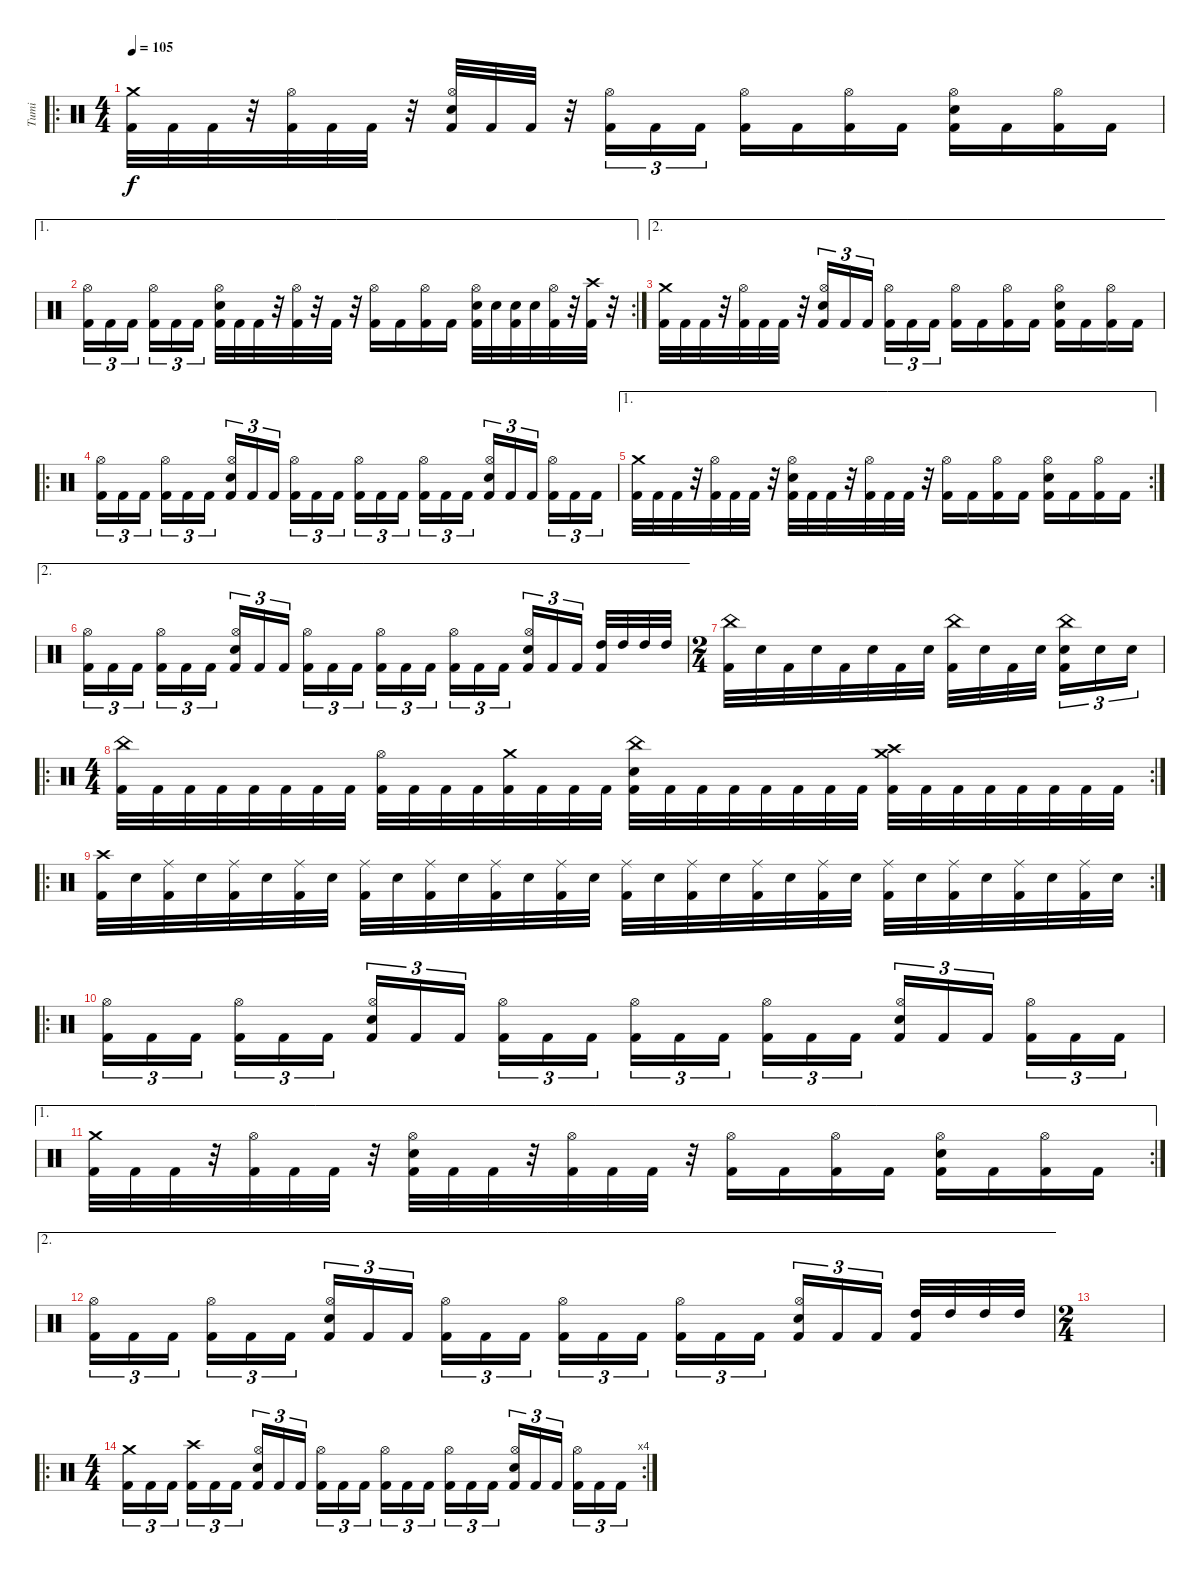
\track ("Tumi" "Tumi") {instrument percussion}
\staff {score}
\articulation defaults
\ro
\ts (4 4)
\tempo 105
\clef neutral
\ks c
("Crash medium (hit)" "Kick (hit) 2").32{dy f} "Kick (hit) 2".32 "Kick (hit) 2".32 r.32 ("Hi-Hat (open)" "Kick (hit) 2").32 "Kick (hit) 2".32 "Kick (hit) 2".32 r.32 ("Electric Snare (hit)" "Hi-Hat (open)" "Kick (hit) 2").32 "Kick (hit) 2".32 "Kick (hit) 2".32 r.32 ("Hi-Hat (open)" "Kick (hit) 2").16{tu (3 2)} "Kick (hit) 2".16{tu (3 2)} "Kick (hit) 2".16{tu (3 2)} ("Hi-Hat (open)" "Kick (hit) 2").16 "Kick (hit) 2".16 ("Hi-Hat (open)" "Kick (hit) 2").16 "Kick (hit) 2".16 ("Electric Snare (hit)" "Hi-Hat (open)" "Kick (hit) 2").16 "Kick (hit) 2".16 ("Hi-Hat (open)" "Kick (hit) 2").16 "Kick (hit) 2".16 |
\ae 1
\rc 2
("Hi-Hat (open)" "Kick (hit) 2").16{tu (3 2)} "Kick (hit) 2".16{tu (3 2)} "Kick (hit) 2".16{tu (3 2) beam splitsecondary} ("Hi-Hat (open)" "Kick (hit) 2").16{tu (3 2)} "Kick (hit) 2".16{tu (3 2)} "Kick (hit) 2".16{tu (3 2)} ("Electric Snare (hit)" "Hi-Hat (open)" "Kick (hit) 2").32 "Kick (hit) 2".32 "Kick (hit) 2".32 r.32 ("Hi-Hat (open)" "Kick (hit) 2").32 r.32 "Kick (hit) 2".32 r.32 ("Hi-Hat (open)" "Kick (hit) 2").16 "Kick (hit) 2".16 ("Hi-Hat (open)" "Kick (hit) 2").16 "Kick (hit) 2".16 ("Hi-Hat (open)" "Electric Snare (hit)" "Kick (hit) 2").32 "Electric Snare (hit)".32 ("Electric Snare (hit)" "Kick (hit) 2").32 "Electric Snare (hit)".32 ("Hi-Hat (open)" "Kick (hit) 2").32 r.32 ("Crash high (hit)" "Kick (hit) 2").32 r.32 |
\ae 2
("Crash medium (hit)" "Kick (hit) 2").32 "Kick (hit) 2".32 "Kick (hit) 2".32 r.32 ("Hi-Hat (open)" "Kick (hit) 2").32 "Kick (hit) 2".32 "Kick (hit) 2".32 r.32 ("Hi-Hat (open)" "Electric Snare (hit)" "Kick (hit) 2").16{tu (3 2)} "Kick (hit) 2".16{tu (3 2)} "Kick (hit) 2".16{tu (3 2) beam splitsecondary} ("Hi-Hat (open)" "Kick (hit) 2").16{tu (3 2)} "Kick (hit) 2".16{tu (3 2)} "Kick (hit) 2".16{tu (3 2)} ("Hi-Hat (open)" "Kick (hit) 2").16 "Kick (hit) 2".16 ("Hi-Hat (open)" "Kick (hit) 2").16 "Kick (hit) 2".16 ("Hi-Hat (open)" "Electric Snare (hit)" "Kick (hit) 2").16 "Kick (hit) 2".16 ("Hi-Hat (open)" "Kick (hit) 2").16 "Kick (hit) 2".16 |
\ro
("Hi-Hat (open)" "Kick (hit) 2").16{tu (3 2)} "Kick (hit) 2".16{tu (3 2)} "Kick (hit) 2".16{tu (3 2) beam splitsecondary} ("Hi-Hat (open)" "Kick (hit) 2").16{tu (3 2)} "Kick (hit) 2".16{tu (3 2)} "Kick (hit) 2".16{tu (3 2)} ("Electric Snare (hit)" "Hi-Hat (open)" "Kick (hit) 2").16{tu (3 2)} "Kick (hit) 2".16{tu (3 2)} "Kick (hit) 2".16{tu (3 2) beam splitsecondary} ("Hi-Hat (open)" "Kick (hit) 2").16{tu (3 2)} "Kick (hit) 2".16{tu (3 2)} "Kick (hit) 2".16{tu (3 2)} ("Hi-Hat (open)" "Kick (hit) 2").16{tu (3 2)} "Kick (hit) 2".16{tu (3 2)} "Kick (hit) 2".16{tu (3 2) beam splitsecondary} ("Hi-Hat (open)" "Kick (hit) 2").16{tu (3 2)} "Kick (hit) 2".16{tu (3 2)} "Kick (hit) 2".16{tu (3 2)} ("Electric Snare (hit)" "Hi-Hat (open)" "Kick (hit) 2").16{tu (3 2)} "Kick (hit) 2".16{tu (3 2)} "Kick (hit) 2".16{tu (3 2) beam splitsecondary} ("Hi-Hat (open)" "Kick (hit) 2").16{tu (3 2)} "Kick (hit) 2".16{tu (3 2)} "Kick (hit) 2".16{tu (3 2)} |
\ae 1
\rc 2
("Crash medium (hit)" "Kick (hit) 2").32 "Kick (hit) 2".32 "Kick (hit) 2".32 r.32 ("Hi-Hat (open)" "Kick (hit) 2").32 "Kick (hit) 2".32 "Kick (hit) 2".32 r.32 ("Electric Snare (hit)" "Hi-Hat (open)" "Kick (hit) 2").32 "Kick (hit) 2".32 "Kick (hit) 2".32 r.32 ("Hi-Hat (open)" "Kick (hit) 2").32 "Kick (hit) 2".32 "Kick (hit) 2".32 r.32 ("Hi-Hat (open)" "Kick (hit) 2").16 "Kick (hit) 2".16 ("Hi-Hat (open)" "Kick (hit) 2").16 "Kick (hit) 2".16 ("Electric Snare (hit)" "Hi-Hat (open)" "Kick (hit) 2").16 "Kick (hit) 2".16 ("Hi-Hat (open)" "Kick (hit) 2").16 "Kick (hit) 2".16 |
\ae 2
("Hi-Hat (open)" "Kick (hit) 2").16{tu (3 2)} "Kick (hit) 2".16{tu (3 2)} "Kick (hit) 2".16{tu (3 2) beam splitsecondary} ("Hi-Hat (open)" "Kick (hit) 2").16{tu (3 2)} "Kick (hit) 2".16{tu (3 2)} "Kick (hit) 2".16{tu (3 2)} ("Electric Snare (hit)" "Hi-Hat (open)" "Kick (hit) 2").16{tu (3 2)} "Kick (hit) 2".16{tu (3 2)} "Kick (hit) 2".16{tu (3 2) beam splitsecondary} ("Hi-Hat (open)" "Kick (hit) 2").16{tu (3 2)} "Kick (hit) 2".16{tu (3 2)} "Kick (hit) 2".16{tu (3 2)} ("Hi-Hat (open)" "Kick (hit) 2").16{tu (3 2)} "Kick (hit) 2".16{tu (3 2)} "Kick (hit) 2".16{tu (3 2) beam splitsecondary} ("Hi-Hat (open)" "Kick (hit) 2").16{tu (3 2)} "Kick (hit) 2".16{tu (3 2)} "Kick (hit) 2".16{tu (3 2)} ("Electric Snare (hit)" "Hi-Hat (open)" "Kick (hit) 2").16{tu (3 2)} "Kick (hit) 2".16{tu (3 2)} "Kick (hit) 2".16{tu (3 2) beam splitsecondary} ("High Tom (hit)" "Kick (hit) 2").32 "High Tom (hit)".32 "High Tom (hit)".32 "High Tom (hit)".32 |
\ts (2 4)
("China (hit)" "Kick (hit) 2").32 "Electric Snare (hit)".32 "Kick (hit) 2".32 "Electric Snare (hit)".32 "Kick (hit) 2".32 "Electric Snare (hit)".32 "Kick (hit) 2".32 "Electric Snare (hit)".32 ("China (hit)" "Kick (hit) 2").32 "Electric Snare (hit)".32 "Kick (hit) 2".32 "Electric Snare (hit)".32{beam splitsecondary} ("China (hit)" "Electric Snare (hit)" "Kick (hit) 2").16{tu (3 2)} "Electric Snare (hit)".16{tu (3 2)} "Electric Snare (hit)".16{tu (3 2)} |
\ro
\rc 2
\ts (4 4)
("China (hit)" "Kick (hit) 2").32 "Kick (hit) 2".32 "Kick (hit) 2".32 "Kick (hit) 2".32 "Kick (hit) 2".32 "Kick (hit) 2".32 "Kick (hit) 2".32 "Kick (hit) 2".32 ("Hi-Hat (open)" "Kick (hit) 2").32 "Kick (hit) 2".32 "Kick (hit) 2".32 "Kick (hit) 2".32 ("Crash medium (hit)" "Kick (hit) 2").32 "Kick (hit) 2".32 "Kick (hit) 2".32 "Kick (hit) 2".32 ("China (hit)" "Electric Snare (hit)" "Kick (hit) 2").32 "Kick (hit) 2".32 "Kick (hit) 2".32 "Kick (hit) 2".32 "Kick (hit) 2".32 "Kick (hit) 2".32 "Kick (hit) 2".32 "Kick (hit) 2".32 ("Crash high (hit)" "Crash medium (hit)" "Kick (hit) 2").32 "Kick (hit) 2".32 "Kick (hit) 2".32 "Kick (hit) 2".32 "Kick (hit) 2".32 "Kick (hit) 2".32 "Kick (hit) 2".32 "Kick (hit) 2".32 |
\ro
\rc 2
("Crash high (hit)" "Kick (hit) 2").32 "Electric Snare (hit)".32 ("Ride (middle)" "Kick (hit) 2").32 "Electric Snare (hit)".32 ("Ride (middle)" "Kick (hit) 2").32 "Electric Snare (hit)".32 ("Ride (middle)" "Kick (hit) 2").32 "Electric Snare (hit)".32 ("Ride (middle)" "Kick (hit) 2").32 "Electric Snare (hit)".32 ("Ride (middle)" "Kick (hit) 2").32 "Electric Snare (hit)".32 ("Ride (middle)" "Kick (hit) 2").32 "Electric Snare (hit)".32 ("Ride (middle)" "Kick (hit) 2").32 "Electric Snare (hit)".32 ("Ride (middle)" "Kick (hit) 2").32 "Electric Snare (hit)".32 ("Ride (middle)" "Kick (hit) 2").32 "Electric Snare (hit)".32 ("Ride (middle)" "Kick (hit) 2").32 "Electric Snare (hit)".32 ("Ride (middle)" "Kick (hit) 2").32 "Electric Snare (hit)".32 ("Ride (middle)" "Kick (hit) 2").32 "Electric Snare (hit)".32 ("Ride (middle)" "Kick (hit) 2").32 "Electric Snare (hit)".32 ("Ride (middle)" "Kick (hit) 2").32 "Electric Snare (hit)".32 ("Ride (middle)" "Kick (hit) 2").32 "Electric Snare (hit)".32 |
\ro
("Hi-Hat (open)" "Kick (hit) 2").16{tu (3 2)} "Kick (hit) 2".16{tu (3 2)} "Kick (hit) 2".16{tu (3 2) beam splitsecondary} ("Hi-Hat (open)" "Kick (hit) 2").16{tu (3 2)} "Kick (hit) 2".16{tu (3 2)} "Kick (hit) 2".16{tu (3 2)} ("Electric Snare (hit)" "Hi-Hat (open)" "Kick (hit) 2").16{tu (3 2)} "Kick (hit) 2".16{tu (3 2)} "Kick (hit) 2".16{tu (3 2) beam splitsecondary} ("Hi-Hat (open)" "Kick (hit) 2").16{tu (3 2)} "Kick (hit) 2".16{tu (3 2)} "Kick (hit) 2".16{tu (3 2)} ("Hi-Hat (open)" "Kick (hit) 2").16{tu (3 2)} "Kick (hit) 2".16{tu (3 2)} "Kick (hit) 2".16{tu (3 2) beam splitsecondary} ("Hi-Hat (open)" "Kick (hit) 2").16{tu (3 2)} "Kick (hit) 2".16{tu (3 2)} "Kick (hit) 2".16{tu (3 2)} ("Electric Snare (hit)" "Hi-Hat (open)" "Kick (hit) 2").16{tu (3 2)} "Kick (hit) 2".16{tu (3 2)} "Kick (hit) 2".16{tu (3 2) beam splitsecondary} ("Hi-Hat (open)" "Kick (hit) 2").16{tu (3 2)} "Kick (hit) 2".16{tu (3 2)} "Kick (hit) 2".16{tu (3 2)} |
\ae 1
\rc 2
("Crash medium (hit)" "Kick (hit) 2").32 "Kick (hit) 2".32 "Kick (hit) 2".32 r.32 ("Hi-Hat (open)" "Kick (hit) 2").32 "Kick (hit) 2".32 "Kick (hit) 2".32 r.32 ("Electric Snare (hit)" "Hi-Hat (open)" "Kick (hit) 2").32 "Kick (hit) 2".32 "Kick (hit) 2".32 r.32 ("Hi-Hat (open)" "Kick (hit) 2").32 "Kick (hit) 2".32 "Kick (hit) 2".32 r.32 ("Hi-Hat (open)" "Kick (hit) 2").16 "Kick (hit) 2".16 ("Hi-Hat (open)" "Kick (hit) 2").16 "Kick (hit) 2".16 ("Electric Snare (hit)" "Hi-Hat (open)" "Kick (hit) 2").16 "Kick (hit) 2".16 ("Hi-Hat (open)" "Kick (hit) 2").16 "Kick (hit) 2".16 |
\ae 2
("Hi-Hat (open)" "Kick (hit) 2").16{tu (3 2)} "Kick (hit) 2".16{tu (3 2)} "Kick (hit) 2".16{tu (3 2) beam splitsecondary} ("Hi-Hat (open)" "Kick (hit) 2").16{tu (3 2)} "Kick (hit) 2".16{tu (3 2)} "Kick (hit) 2".16{tu (3 2)} ("Electric Snare (hit)" "Hi-Hat (open)" "Kick (hit) 2").16{tu (3 2)} "Kick (hit) 2".16{tu (3 2)} "Kick (hit) 2".16{tu (3 2) beam splitsecondary} ("Hi-Hat (open)" "Kick (hit) 2").16{tu (3 2)} "Kick (hit) 2".16{tu (3 2)} "Kick (hit) 2".16{tu (3 2)} ("Hi-Hat (open)" "Kick (hit) 2").16{tu (3 2)} "Kick (hit) 2".16{tu (3 2)} "Kick (hit) 2".16{tu (3 2) beam splitsecondary} ("Hi-Hat (open)" "Kick (hit) 2").16{tu (3 2)} "Kick (hit) 2".16{tu (3 2)} "Kick (hit) 2".16{tu (3 2)} ("Electric Snare (hit)" "Hi-Hat (open)" "Kick (hit) 2").16{tu (3 2)} "Kick (hit) 2".16{tu (3 2)} "Kick (hit) 2".16{tu (3 2) beam splitsecondary} ("High Tom (hit)" "Kick (hit) 2").32 "High Tom (hit)".32 "High Tom (hit)".32 "High Tom (hit)".32 |
\ts (2 4)
|
\ro
\rc 4
\ts (4 4)
("Crash medium (hit)" "Kick (hit) 2").16{tu (3 2)} "Kick (hit) 2".16{tu (3 2)} "Kick (hit) 2".16{tu (3 2) beam splitsecondary} ("Crash high (hit)" "Kick (hit) 2").16{tu (3 2)} "Kick (hit) 2".16{tu (3 2)} "Kick (hit) 2".16{tu (3 2)} ("Hi-Hat (open)" "Electric Snare (hit)" "Kick (hit) 2").16{tu (3 2)} "Kick (hit) 2".16{tu (3 2)} "Kick (hit) 2".16{tu (3 2) beam splitsecondary} ("Hi-Hat (open)" "Kick (hit) 2").16{tu (3 2)} "Kick (hit) 2".16{tu (3 2)} "Kick (hit) 2".16{tu (3 2)} ("Hi-Hat (open)" "Kick (hit) 2").16{tu (3 2)} "Kick (hit) 2".16{tu (3 2)} "Kick (hit) 2".16{tu (3 2) beam splitsecondary} ("Hi-Hat (open)" "Kick (hit) 2").16{tu (3 2)} "Kick (hit) 2".16{tu (3 2)} "Kick (hit) 2".16{tu (3 2)} ("Hi-Hat (open)" "Electric Snare (hit)" "Kick (hit) 2").16{tu (3 2)} "Kick (hit) 2".16{tu (3 2)} "Kick (hit) 2".16{tu (3 2) beam splitsecondary} ("Hi-Hat (open)" "Kick (hit) 2").16{tu (3 2)} "Kick (hit) 2".16{tu (3 2)} "Kick (hit) 2".16{tu (3 2)}
